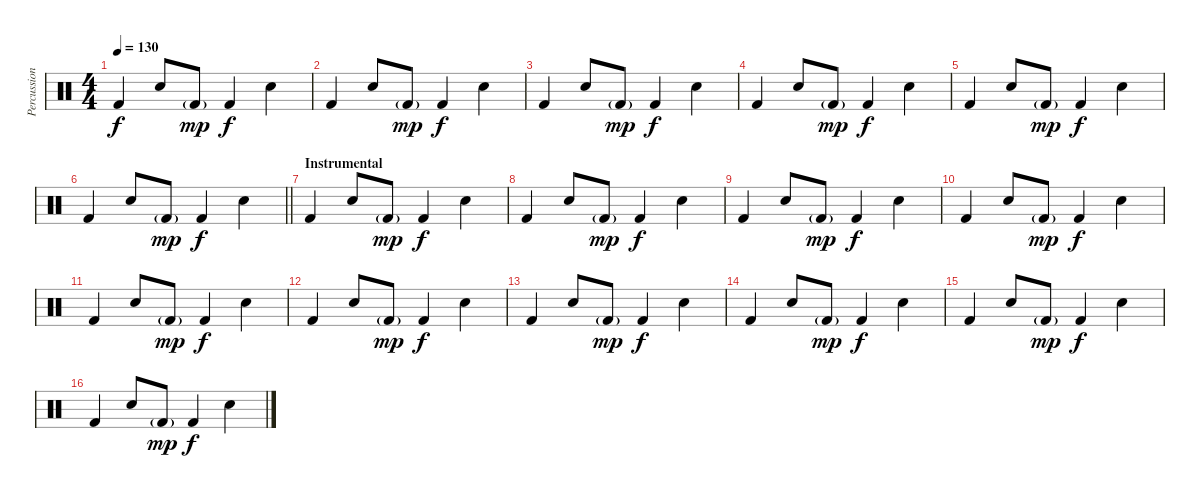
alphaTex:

\track ("Percussion" "Percussion") {instrument percussion}
\staff {score}
\articulation defaults
\ts (4 4)
\tempo 130
\clef neutral
\ks c "Kick (hit) 2".4{dy f} "Snare (hit) 2".8 "Kick (hit) 2"{g}.8{dy mp} "Kick (hit) 2".4{dy f} "Snare (hit) 2".4
|
"Kick (hit) 2".4 "Snare (hit) 2".8 "Kick (hit) 2"{g}.8{dy mp} "Kick (hit) 2".4{dy f} "Snare (hit) 2".4 |
"Kick (hit) 2".4 "Snare (hit) 2".8 "Kick (hit) 2"{g}.8{dy mp} "Kick (hit) 2".4{dy f} "Snare (hit) 2".4 |
"Kick (hit) 2".4 "Snare (hit) 2".8 "Kick (hit) 2"{g}.8{dy mp} "Kick (hit) 2".4{dy f} "Snare (hit) 2".4 |
"Kick (hit) 2".4 "Snare (hit) 2".8 "Kick (hit) 2"{g}.8{dy mp} "Kick (hit) 2".4{dy f} "Snare (hit) 2".4 |
\barLineRight lightlight "Kick (hit) 2".4 "Snare (hit) 2".8 "Kick (hit) 2"{g}.8{dy mp} "Kick (hit) 2".4{dy f} "Snare (hit) 2".4
|
\section ("" "Instrumental")
"Kick (hit) 2".4 "Snare (hit) 2".8 "Kick (hit) 2"{g}.8{dy mp} "Kick (hit) 2".4{dy f} "Snare (hit) 2".4 |
"Kick (hit) 2".4 "Snare (hit) 2".8 "Kick (hit) 2"{g}.8{dy mp} "Kick (hit) 2".4{dy f} "Snare (hit) 2".4 |
"Kick (hit) 2".4 "Snare (hit) 2".8 "Kick (hit) 2"{g}.8{dy mp} "Kick (hit) 2".4{dy f} "Snare (hit) 2".4 |
"Kick (hit) 2".4 "Snare (hit) 2".8 "Kick (hit) 2"{g}.8{dy mp} "Kick (hit) 2".4{dy f} "Snare (hit) 2".4 |
"Kick (hit) 2".4 "Snare (hit) 2".8 "Kick (hit) 2"{g}.8{dy mp} "Kick (hit) 2".4{dy f} "Snare (hit) 2".4 |
"Kick (hit) 2".4 "Snare (hit) 2".8 "Kick (hit) 2"{g}.8{dy mp} "Kick (hit) 2".4{dy f} "Snare (hit) 2".4 |
"Kick (hit) 2".4 "Snare (hit) 2".8 "Kick (hit) 2"{g}.8{dy mp} "Kick (hit) 2".4{dy f} "Snare (hit) 2".4 |
"Kick (hit) 2".4 "Snare (hit) 2".8 "Kick (hit) 2"{g}.8{dy mp} "Kick (hit) 2".4{dy f} "Snare (hit) 2".4 |
"Kick (hit) 2".4 "Snare (hit) 2".8 "Kick (hit) 2"{g}.8{dy mp} "Kick (hit) 2".4{dy f} "Snare (hit) 2".4 |
"Kick (hit) 2".4 "Snare (hit) 2".8 "Kick (hit) 2"{g}.8{dy mp} "Kick (hit) 2".4{dy f} "Snare (hit) 2".4
